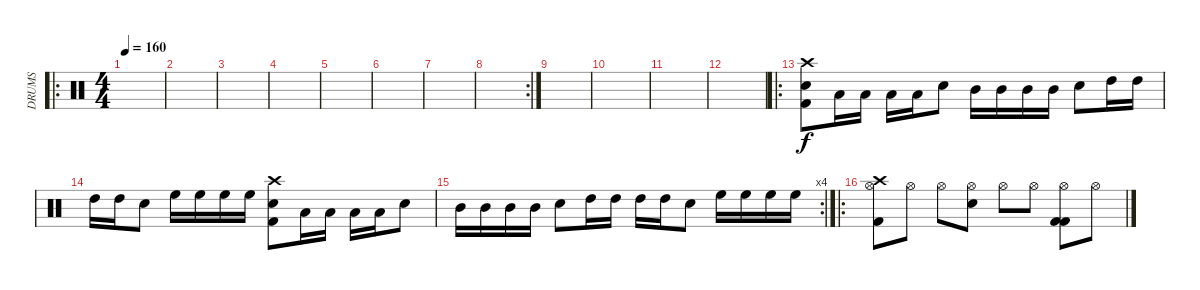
\track ("DRUMS" "DRUMS") {instrument percussion}
\staff {score}
\articulation defaults
\ro
\ts (4 4)
\tempo 160
\clef neutral
\ks c
|
|
|
|
|
|
|
\rc 2
|
|
|
|
|
\ro
("Crash high (hit)" "Snare (hit) 2" "Kick (hit) 2").8 "Low Tom (hit)".16 "Low Tom (hit)".16 "Low Tom (hit)".16 "Low Tom (hit)".16 "Snare (hit) 2".8 "Mid Tom (hit)".16 "Mid Tom (hit)".16 "Mid Tom (hit)".16 "Mid Tom (hit)".16 "Snare (hit) 2".8 "High Tom (hit)".16 "High Tom (hit)".16 |
"High Tom (hit)".16 "High Tom (hit)".16 "Snare (hit) 2".8 "High Floor Tom (hit)".16 "High Floor Tom (hit)".16 "High Floor Tom (hit)".16 "High Floor Tom (hit)".16 ("Kick (hit) 2" "Crash high (hit)" "Snare (hit) 2").8 "Low Tom (hit)".16 "Low Tom (hit)".16 "Low Tom (hit)".16 "Low Tom (hit)".16 "Snare (hit) 2".8 |
\rc 4 "Mid Tom (hit)".16 "Mid Tom (hit)".16 "Mid Tom (hit)".16 "Mid Tom (hit)".16 "Snare (hit) 2".8 "High Tom (hit)".16 "High Tom (hit)".16 "High Tom (hit)".16 "High Tom (hit)".16 "Snare (hit) 2".8 "High Floor Tom (hit)".16 "High Floor Tom (hit)".16 "High Floor Tom (hit)".16 "High Floor Tom (hit)".16
|
\ro
("Crash high (hit)" "Kick (hit) 2" "Hi-Hat (open)").8 "Hi-Hat (open)".8 "Hi-Hat (open)".8 ("Snare (hit) 2" "Hi-Hat (open)").8 "Hi-Hat (open)".8 "Hi-Hat (open)".8 ("Kick (hit) 2" "Kick (hit) 2" "Hi-Hat (open)").8 "Hi-Hat (open)".8
